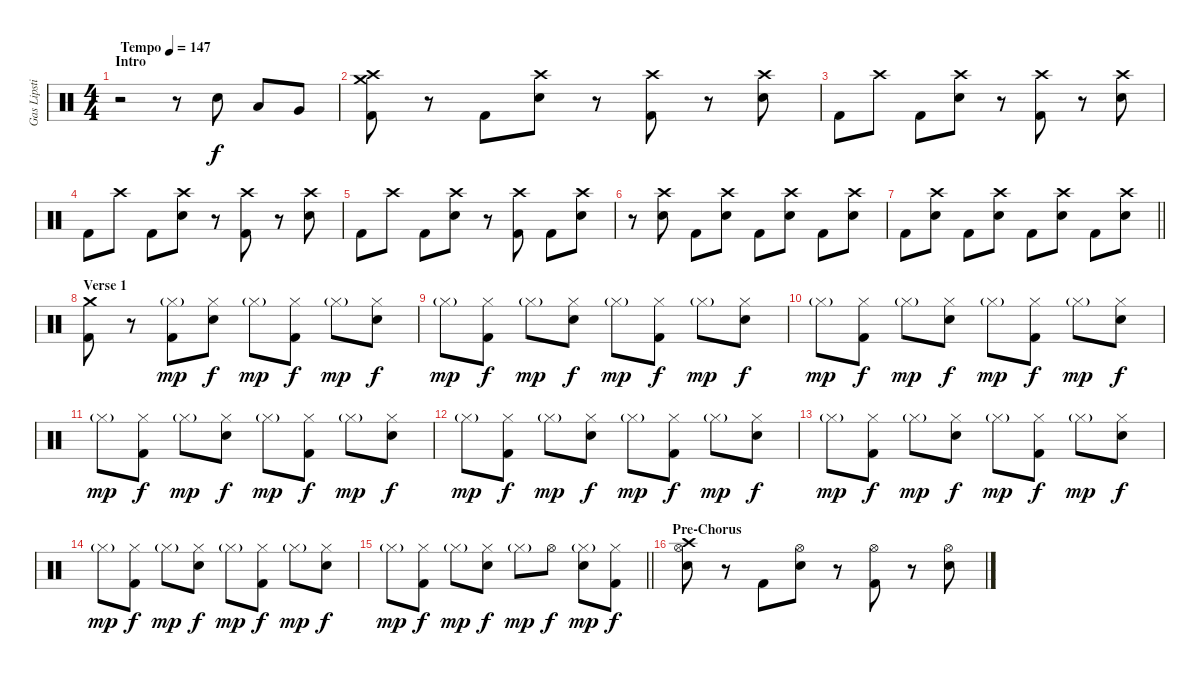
\track ("Gas Lipstick (Drums)" "Gas Lipsti") {instrument percussion}
\staff {score}
\articulation defaults
\ts (4 4)
\section ("" "Intro")
\tempo (147 "Tempo")
\clef neutral
\ks c
r.2{dy f} r.8 "Snare (hit) 2".8 "Low Tom (hit)".8 "Very Low Tom (hit)".8 |
("Crash medium (hit)" "Crash high (hit)" "Kick (hit) 2").8 r.8 "Kick (hit) 2".8 ("Crash high (hit)" "Snare (hit) 2").8 r.8 ("Crash high (hit)" "Kick (hit) 2").8 r.8 ("Crash high (hit)" "Snare (hit) 2").8 |
"Kick (hit) 2".8 "Crash high (hit)".8 "Kick (hit) 2".8 ("Crash high (hit)" "Snare (hit) 2").8 r.8 ("Crash high (hit)" "Kick (hit) 2").8 r.8 ("Crash high (hit)" "Snare (hit) 2").8 |
"Kick (hit) 2".8 "Crash high (hit)".8 "Kick (hit) 2".8 ("Crash high (hit)" "Snare (hit) 2").8 r.8 ("Crash high (hit)" "Kick (hit) 2").8 r.8 ("Crash high (hit)" "Snare (hit) 2").8 |
"Kick (hit) 2".8 "Crash high (hit)".8 "Kick (hit) 2".8 ("Crash high (hit)" "Snare (hit) 2").8 r.8 ("Crash high (hit)" "Kick (hit) 2").8 "Kick (hit) 2".8 ("Crash high (hit)" "Snare (hit) 2").8 |
r.8 ("Crash high (hit)" "Snare (hit) 2").8 "Kick (hit) 2".8 ("Crash high (hit)" "Snare (hit) 2").8 "Kick (hit) 2".8 ("Crash high (hit)" "Snare (hit) 2").8 "Kick (hit) 2".8 ("Crash high (hit)" "Snare (hit) 2").8 |
\barLineRight lightlight "Kick (hit) 2".8
("Crash high (hit)" "Snare (hit) 2").8 "Kick (hit) 2".8 ("Crash high (hit)" "Snare (hit) 2").8 "Kick (hit) 2".8 ("Crash high (hit)" "Snare (hit) 2").8 "Kick (hit) 2".8 ("Crash high (hit)" "Snare (hit) 2").8 |
\section ("" "Verse 1")
("Crash medium (hit)" "Kick (hit) 2").8 r.8 ("Hi-Hat (closed)"{g} "Kick (hit) 2").8{dy mp} ("Hi-Hat (closed)" "Snare (hit) 2").8{dy f} "Hi-Hat (closed)"{g}.8{dy mp} ("Hi-Hat (closed)" "Kick (hit) 2").8{dy f} "Hi-Hat (closed)"{g}.8{dy mp} ("Hi-Hat (closed)" "Snare (hit) 2").8{dy f} |
"Hi-Hat (closed)"{g}.8{dy mp} ("Hi-Hat (closed)" "Kick (hit) 2").8{dy f} "Hi-Hat (closed)"{g}.8{dy mp} ("Hi-Hat (closed)" "Snare (hit) 2").8{dy f} "Hi-Hat (closed)"{g}.8{dy mp} ("Hi-Hat (closed)" "Kick (hit) 2").8{dy f} "Hi-Hat (closed)"{g}.8{dy mp} ("Hi-Hat (closed)" "Snare (hit) 2").8{dy f} |
"Hi-Hat (closed)"{g}.8{dy mp} ("Hi-Hat (closed)" "Kick (hit) 2").8{dy f} "Hi-Hat (closed)"{g}.8{dy mp} ("Hi-Hat (closed)" "Snare (hit) 2").8{dy f} "Hi-Hat (closed)"{g}.8{dy mp} ("Hi-Hat (closed)" "Kick (hit) 2").8{dy f} "Hi-Hat (closed)"{g}.8{dy mp} ("Hi-Hat (closed)" "Snare (hit) 2").8{dy f} |
"Hi-Hat (closed)"{g}.8{dy mp} ("Hi-Hat (closed)" "Kick (hit) 2").8{dy f} "Hi-Hat (closed)"{g}.8{dy mp} ("Hi-Hat (closed)" "Snare (hit) 2").8{dy f} "Hi-Hat (closed)"{g}.8{dy mp} ("Hi-Hat (closed)" "Kick (hit) 2").8{dy f} "Hi-Hat (closed)"{g}.8{dy mp} ("Hi-Hat (closed)" "Snare (hit) 2").8{dy f} |
"Hi-Hat (closed)"{g}.8{dy mp} ("Hi-Hat (closed)" "Kick (hit) 2").8{dy f} "Hi-Hat (closed)"{g}.8{dy mp} ("Hi-Hat (closed)" "Snare (hit) 2").8{dy f} "Hi-Hat (closed)"{g}.8{dy mp} ("Hi-Hat (closed)" "Kick (hit) 2").8{dy f} "Hi-Hat (closed)"{g}.8{dy mp} ("Hi-Hat (closed)" "Snare (hit) 2").8{dy f} |
"Hi-Hat (closed)"{g}.8{dy mp} ("Hi-Hat (closed)" "Kick (hit) 2").8{dy f} "Hi-Hat (closed)"{g}.8{dy mp} ("Hi-Hat (closed)" "Snare (hit) 2").8{dy f} "Hi-Hat (closed)"{g}.8{dy mp} ("Hi-Hat (closed)" "Kick (hit) 2").8{dy f} "Hi-Hat (closed)"{g}.8{dy mp} ("Hi-Hat (closed)" "Snare (hit) 2").8{dy f} |
"Hi-Hat (closed)"{g}.8{dy mp} ("Hi-Hat (closed)" "Kick (hit) 2").8{dy f} "Hi-Hat (closed)"{g}.8{dy mp} ("Hi-Hat (closed)" "Snare (hit) 2").8{dy f} "Hi-Hat (closed)"{g}.8{dy mp} ("Hi-Hat (closed)" "Kick (hit) 2").8{dy f} "Hi-Hat (closed)"{g}.8{dy mp} ("Hi-Hat (closed)" "Snare (hit) 2").8{dy f} |
\barLineRight lightlight "Hi-Hat (closed)"{g}.8{dy mp}
("Hi-Hat (closed)" "Kick (hit) 2").8{dy f} "Hi-Hat (closed)"{g}.8{dy mp} ("Hi-Hat (closed)" "Snare (hit) 2").8{dy f} "Hi-Hat (closed)"{g}.8{dy mp} "Hi-Hat (open)".8{dy f} ("Hi-Hat (closed)"{g} "Snare (hit) 2").8{dy mp} ("Hi-Hat (closed)" "Kick (hit) 2").8{dy f} |
\section ("" "Pre-Chorus")
("Crash high (hit)" "Hi-Hat (open)" "Snare (hit) 2").8 r.8 "Kick (hit) 2".8 ("Hi-Hat (open)" "Snare (hit) 2").8 r.8 ("Hi-Hat (open)" "Kick (hit) 2").8 r.8 ("Hi-Hat (open)" "Snare (hit) 2").8
